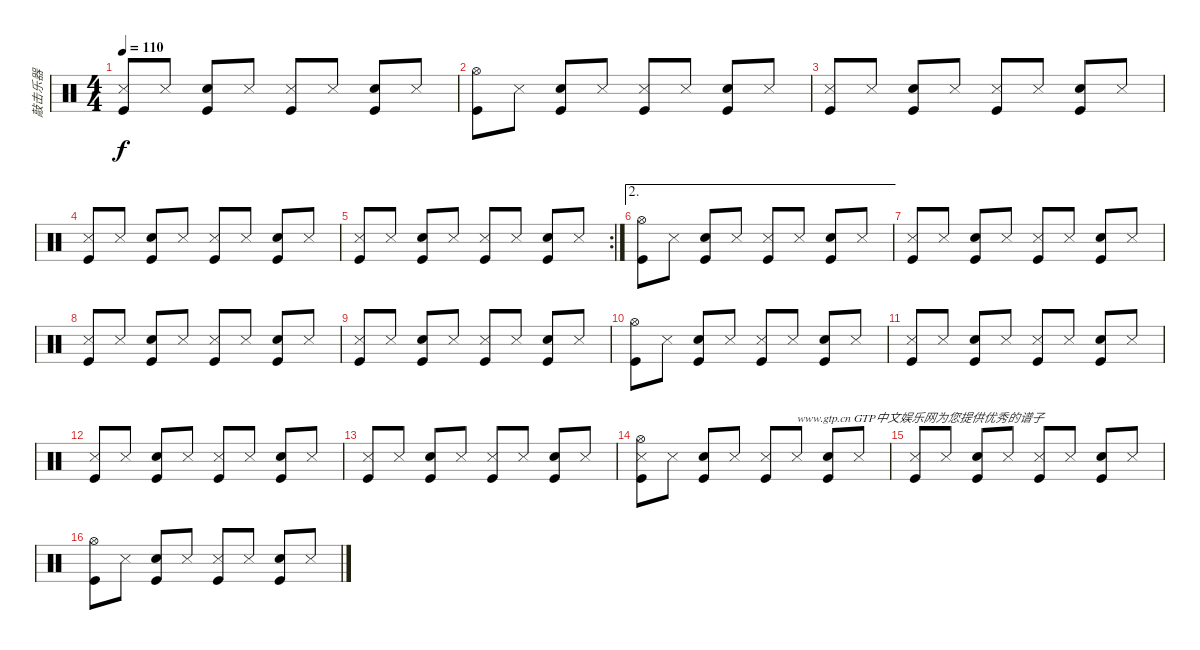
\track ("敲击乐器" "敲击乐器") {instrument percussion}
\staff {score}
\articulation defaults
\ts (4 4)
\tempo 110
\clef neutral
\ks c
("Snare (side stick) 3" "Kick (hit)").8{dy f} "Snare (side stick) 3".8 ("Snare (hit) 2" "Kick (hit)").8 "Snare (side stick) 3".8 ("Snare (side stick) 3" "Kick (hit)").8 "Snare (side stick) 3".8 ("Snare (hit) 2" "Kick (hit)").8 "Snare (side stick) 3".8 |
("Hi-Hat (open)" "Kick (hit)").8 "Snare (side stick) 3".8 ("Snare (hit) 2" "Kick (hit)").8 "Snare (side stick) 3".8 ("Snare (side stick) 3" "Kick (hit)").8 "Snare (side stick) 3".8 ("Snare (hit) 2" "Kick (hit)").8 "Snare (side stick) 3".8 |
("Snare (side stick) 3" "Kick (hit)").8 "Snare (side stick) 3".8 ("Snare (hit) 2" "Kick (hit)").8 "Snare (side stick) 3".8 ("Snare (side stick) 3" "Kick (hit)").8 "Snare (side stick) 3".8 ("Snare (hit) 2" "Kick (hit)").8 "Snare (side stick) 3".8 |
("Snare (side stick) 3" "Kick (hit)").8 "Snare (side stick) 3".8 ("Snare (hit) 2" "Kick (hit)").8 "Snare (side stick) 3".8 ("Snare (side stick) 3" "Kick (hit)").8 "Snare (side stick) 3".8 ("Snare (hit) 2" "Kick (hit)").8 "Snare (side stick) 3".8 |
\rc 2
("Snare (side stick) 3" "Kick (hit)").8 "Snare (side stick) 3".8 ("Snare (hit) 2" "Kick (hit)").8 "Snare (side stick) 3".8 ("Snare (side stick) 3" "Kick (hit)").8 "Snare (side stick) 3".8 ("Snare (hit) 2" "Kick (hit)").8 "Snare (side stick) 3".8 |
\ae 2
("Hi-Hat (open)" "Kick (hit)").8 "Snare (side stick) 3".8 ("Snare (hit) 2" "Kick (hit)").8 "Snare (side stick) 3".8 ("Snare (side stick) 3" "Kick (hit)").8 "Snare (side stick) 3".8 ("Snare (hit) 2" "Kick (hit)").8 "Snare (side stick) 3".8 |
("Snare (side stick) 3" "Kick (hit)").8 "Snare (side stick) 3".8 ("Snare (hit) 2" "Kick (hit)").8 "Snare (side stick) 3".8 ("Snare (side stick) 3" "Kick (hit)").8 "Snare (side stick) 3".8 ("Snare (hit) 2" "Kick (hit)").8 "Snare (side stick) 3".8 |
("Snare (side stick) 3" "Kick (hit)").8 "Snare (side stick) 3".8 ("Snare (hit) 2" "Kick (hit)").8 "Snare (side stick) 3".8 ("Snare (side stick) 3" "Kick (hit)").8 "Snare (side stick) 3".8 ("Snare (hit) 2" "Kick (hit)").8 "Snare (side stick) 3".8 |
("Snare (side stick) 3" "Kick (hit)").8 "Snare (side stick) 3".8 ("Snare (hit) 2" "Kick (hit)").8 "Snare (side stick) 3".8 ("Snare (side stick) 3" "Kick (hit)").8 "Snare (side stick) 3".8 ("Snare (hit) 2" "Kick (hit)").8 "Snare (side stick) 3".8 |
("Hi-Hat (open)" "Kick (hit)").8 "Snare (side stick) 3".8 ("Snare (hit) 2" "Kick (hit)").8 "Snare (side stick) 3".8 ("Snare (side stick) 3" "Kick (hit)").8 "Snare (side stick) 3".8 ("Snare (hit) 2" "Kick (hit)").8 "Snare (side stick) 3".8 |
("Snare (side stick) 3" "Kick (hit)").8 "Snare (side stick) 3".8 ("Snare (hit) 2" "Kick (hit)").8 "Snare (side stick) 3".8 ("Snare (side stick) 3" "Kick (hit)").8 "Snare (side stick) 3".8 ("Snare (hit) 2" "Kick (hit)").8 "Snare (side stick) 3".8 |
("Snare (side stick) 3" "Kick (hit)").8 "Snare (side stick) 3".8 ("Snare (hit) 2" "Kick (hit)").8 "Snare (side stick) 3".8 ("Snare (side stick) 3" "Kick (hit)").8 "Snare (side stick) 3".8 ("Snare (hit) 2" "Kick (hit)").8 "Snare (side stick) 3".8 |
("Snare (side stick) 3" "Kick (hit)").8 "Snare (side stick) 3".8 ("Snare (hit) 2" "Kick (hit)").8 "Snare (side stick) 3".8 ("Snare (side stick) 3" "Kick (hit)").8 "Snare (side stick) 3".8 ("Snare (hit) 2" "Kick (hit)").8 "Snare (side stick) 3".8 |
("Hi-Hat (open)" "Snare (side stick) 3" "Kick (hit)").8 "Snare (side stick) 3".8 ("Snare (hit) 2" "Kick (hit)").8 "Snare (side stick) 3".8 ("Snare (side stick) 3" "Kick (hit)").8 "Snare (side stick) 3".8{txt "www.gtp.cn GTP中文娱乐网为您提供优秀的谱子"} ("Snare (hit) 2" "Kick (hit)").8 "Snare (side stick) 3".8 |
("Snare (side stick) 3" "Kick (hit)").8 "Snare (side stick) 3".8 ("Snare (hit) 2" "Kick (hit)").8 "Snare (side stick) 3".8 ("Snare (side stick) 3" "Kick (hit)").8 "Snare (side stick) 3".8 ("Snare (hit) 2" "Kick (hit)").8 "Snare (side stick) 3".8 |
("Hi-Hat (open)" "Kick (hit)").8 "Snare (side stick) 3".8 ("Snare (hit) 2" "Kick (hit)").8 "Snare (side stick) 3".8 ("Snare (side stick) 3" "Kick (hit)").8 "Snare (side stick) 3".8 ("Snare (hit) 2" "Kick (hit)").8 "Snare (side stick) 3".8
